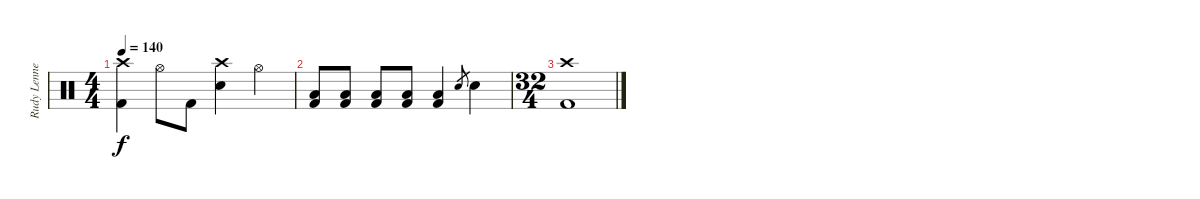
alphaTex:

\track ("Rudy Lenners" "Rudy Lenne") {instrument percussion}
\staff {score}
\articulation defaults
\ts (4 4)
\tempo 140
\clef neutral
\ks c
("Crash high (hit)" "Kick (hit) 2").4{dy f} "Hi-Hat (open)".8 "Kick (hit) 2".8 ("Crash high (hit)" "Snare (hit) 2").4 "Hi-Hat (open)".4 |
("Low Tom (hit)" "Kick (hit) 2").8 ("Low Tom (hit)" "Kick (hit) 2").8 ("Low Tom (hit)" "Kick (hit) 2").8 ("Low Tom (hit)" "Kick (hit) 2").8 ("Low Tom (hit)" "Kick (hit) 2").4 "Snare (hit) 2".8{gr} "Snare (hit) 2".4 |
\ts (32 4)
("Crash high (hit)" "Kick (hit) 2").1
